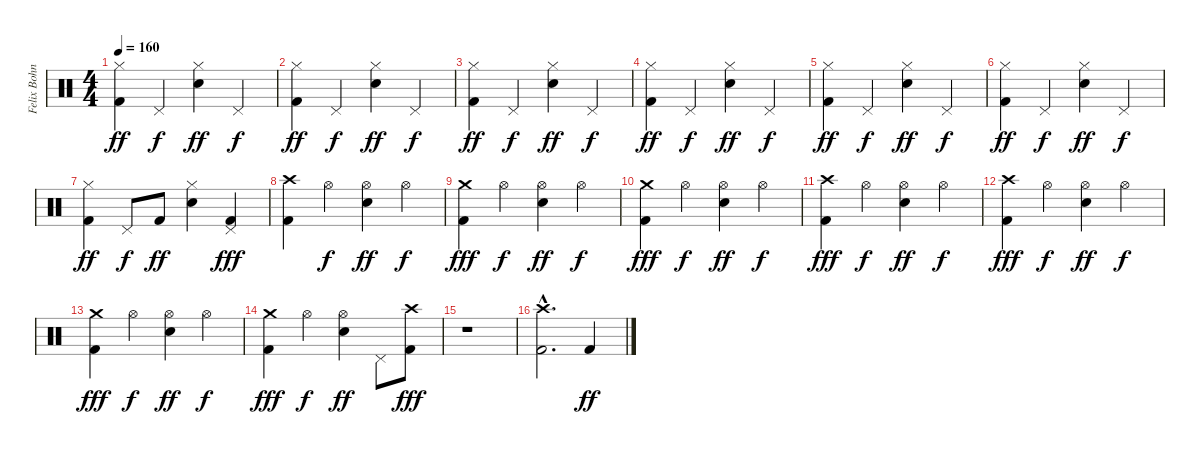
\track ("Felix Bohnke" "Felix Bohn") {instrument percussion}
\staff {score}
\articulation defaults
\ts (4 4)
\tempo 160
\clef neutral
\ks c
("Kick (hit) 2" "Hi-Hat (closed)").4{dy ff} "Pedal Hi-Hat (hit)".4{dy f} ("Snare (hit) 2" "Hi-Hat (closed)").4{dy ff} "Pedal Hi-Hat (hit)".4{dy f} |
("Kick (hit) 2" "Hi-Hat (closed)").4{dy ff} "Pedal Hi-Hat (hit)".4{dy f} ("Snare (hit) 2" "Hi-Hat (closed)").4{dy ff} "Pedal Hi-Hat (hit)".4{dy f} |
("Kick (hit) 2" "Hi-Hat (closed)").4{dy ff} "Pedal Hi-Hat (hit)".4{dy f} ("Snare (hit) 2" "Hi-Hat (closed)").4{dy ff} "Pedal Hi-Hat (hit)".4{dy f} |
("Kick (hit) 2" "Hi-Hat (closed)").4{dy ff} "Pedal Hi-Hat (hit)".4{dy f} ("Snare (hit) 2" "Hi-Hat (closed)").4{dy ff} "Pedal Hi-Hat (hit)".4{dy f} |
("Kick (hit) 2" "Hi-Hat (closed)").4{dy ff} "Pedal Hi-Hat (hit)".4{dy f} ("Snare (hit) 2" "Hi-Hat (closed)").4{dy ff} "Pedal Hi-Hat (hit)".4{dy f} |
("Kick (hit) 2" "Hi-Hat (closed)").4{dy ff} "Pedal Hi-Hat (hit)".4{dy f} ("Snare (hit) 2" "Hi-Hat (closed)").4{dy ff} "Pedal Hi-Hat (hit)".4{dy f} |
("Kick (hit) 2" "Hi-Hat (closed)").4{dy ff} "Pedal Hi-Hat (hit)".8{dy f} "Kick (hit) 2".8{dy ff} ("Snare (hit) 2" "Hi-Hat (closed)").4 ("Kick (hit) 2" "Pedal Hi-Hat (hit)").4{dy fff} |
("Kick (hit) 2" "Crash high (hit)").4 "Hi-Hat (open)".4{dy f} ("Snare (hit) 2" "Hi-Hat (open)").4{dy ff} "Hi-Hat (open)".4{dy f} |
("Kick (hit) 2" "Crash medium (hit)").4{dy fff} "Hi-Hat (open)".4{dy f} ("Snare (hit) 2" "Hi-Hat (open)").4{dy ff} "Hi-Hat (open)".4{dy f} |
("Kick (hit) 2" "Crash medium (hit)").4{dy fff} "Hi-Hat (open)".4{dy f} ("Snare (hit) 2" "Hi-Hat (open)").4{dy ff} "Hi-Hat (open)".4{dy f} |
("Kick (hit) 2" "Crash high (hit)").4{dy fff} "Hi-Hat (open)".4{dy f} ("Snare (hit) 2" "Hi-Hat (open)").4{dy ff} "Hi-Hat (open)".4{dy f} |
("Kick (hit) 2" "Crash high (hit)").4{dy fff} "Hi-Hat (open)".4{dy f} ("Snare (hit) 2" "Hi-Hat (open)").4{dy ff} "Hi-Hat (open)".4{dy f} |
("Kick (hit) 2" "Crash medium (hit)").4{dy fff} "Hi-Hat (open)".4{dy f} ("Snare (hit) 2" "Hi-Hat (open)").4{dy ff} "Hi-Hat (open)".4{dy f} |
("Kick (hit) 2" "Crash medium (hit)").4{dy fff} "Hi-Hat (open)".4{dy f} ("Snare (hit) 2" "Hi-Hat (open)").4{dy ff} "Pedal Hi-Hat (hit)".8 ("Kick (hit) 2" "Crash high (hit)").8{dy fff} |
r.1 |
("Kick (hit) 2"{hac} "Crash high (hit)"{hac}).2{d} "Kick (hit) 2".4{dy ff}
